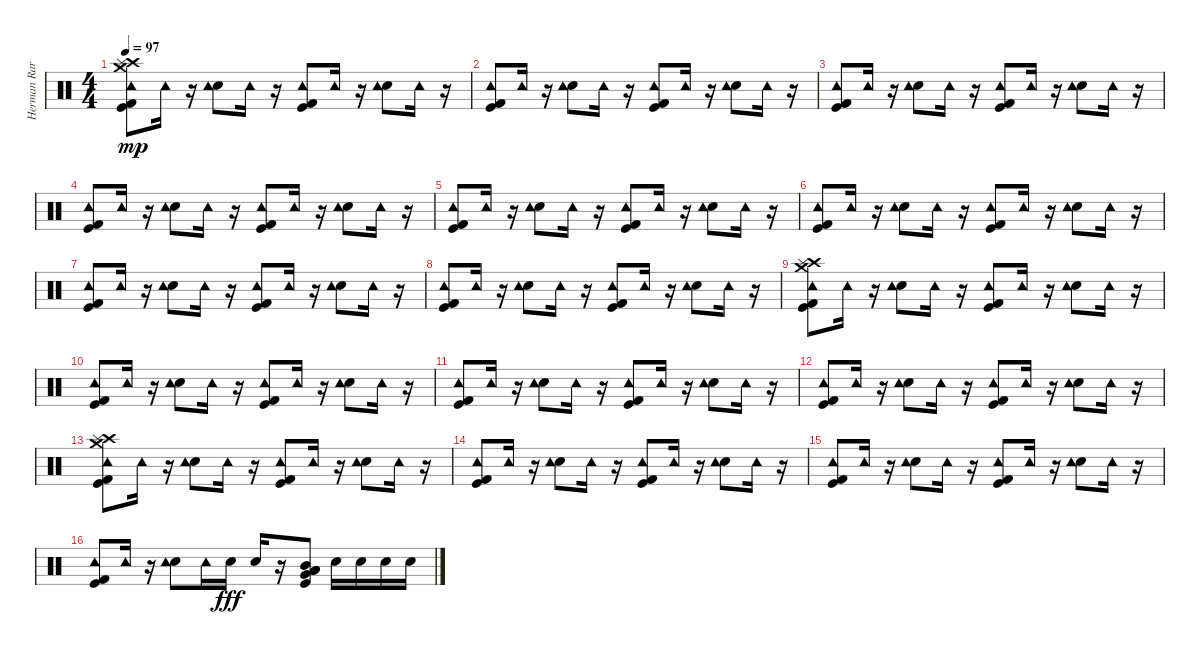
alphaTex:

\track ("Herman Rarebel" "Herman Rar") {instrument percussion}
\staff {score}
\articulation defaults
\ts (4 4)
\tempo 97
\clef neutral
\ks c
("Crash high (hit)" "Splash (hit)" "Crash medium (hit)" "Kick (hit) 2" "Kick (hit)" "Tambourine (hit)").8{dy mp} "Tambourine (hit)".16 r.16 ("Snare (hit) 2" "Tambourine (hit)").8 "Tambourine (hit)".16 r.16 ("Kick (hit) 2" "Kick (hit)" "Tambourine (hit)").8 "Tambourine (hit)".16 r.16 ("Snare (hit) 2" "Tambourine (hit)").8 "Tambourine (hit)".16 r.16 |
("Kick (hit)" "Kick (hit) 2" "Tambourine (hit)").8 "Tambourine (hit)".16 r.16 ("Snare (hit) 2" "Tambourine (hit)").8 "Tambourine (hit)".16 r.16 ("Kick (hit) 2" "Kick (hit)" "Tambourine (hit)").8 "Tambourine (hit)".16 r.16 ("Snare (hit) 2" "Tambourine (hit)").8 "Tambourine (hit)".16 r.16 |
("Kick (hit)" "Kick (hit) 2" "Tambourine (hit)").8 "Tambourine (hit)".16 r.16 ("Snare (hit) 2" "Tambourine (hit)").8 "Tambourine (hit)".16 r.16 ("Kick (hit) 2" "Kick (hit)" "Tambourine (hit)").8 "Tambourine (hit)".16 r.16 ("Snare (hit) 2" "Tambourine (hit)").8 "Tambourine (hit)".16 r.16 |
("Kick (hit)" "Kick (hit) 2" "Tambourine (hit)").8 "Tambourine (hit)".16 r.16 ("Snare (hit) 2" "Tambourine (hit)").8 "Tambourine (hit)".16 r.16 ("Kick (hit) 2" "Kick (hit)" "Tambourine (hit)").8 "Tambourine (hit)".16 r.16 ("Snare (hit) 2" "Tambourine (hit)").8 "Tambourine (hit)".16 r.16 |
("Kick (hit)" "Kick (hit) 2" "Tambourine (hit)").8 "Tambourine (hit)".16 r.16 ("Snare (hit) 2" "Tambourine (hit)").8 "Tambourine (hit)".16 r.16 ("Kick (hit) 2" "Kick (hit)" "Tambourine (hit)").8 "Tambourine (hit)".16 r.16 ("Snare (hit) 2" "Tambourine (hit)").8 "Tambourine (hit)".16 r.16 |
("Kick (hit)" "Kick (hit) 2" "Tambourine (hit)").8 "Tambourine (hit)".16 r.16 ("Snare (hit) 2" "Tambourine (hit)").8 "Tambourine (hit)".16 r.16 ("Kick (hit) 2" "Kick (hit)" "Tambourine (hit)").8 "Tambourine (hit)".16 r.16 ("Snare (hit) 2" "Tambourine (hit)").8 "Tambourine (hit)".16 r.16 |
("Kick (hit)" "Kick (hit) 2" "Tambourine (hit)").8 "Tambourine (hit)".16 r.16 ("Snare (hit) 2" "Tambourine (hit)").8 "Tambourine (hit)".16 r.16 ("Kick (hit) 2" "Kick (hit)" "Tambourine (hit)").8 "Tambourine (hit)".16 r.16 ("Snare (hit) 2" "Tambourine (hit)").8 "Tambourine (hit)".16 r.16 |
("Kick (hit)" "Kick (hit) 2" "Tambourine (hit)").8 "Tambourine (hit)".16 r.16 ("Snare (hit) 2" "Tambourine (hit)").8 "Tambourine (hit)".16 r.16 ("Kick (hit) 2" "Kick (hit)" "Tambourine (hit)").8 "Tambourine (hit)".16 r.16 ("Snare (hit) 2" "Tambourine (hit)").8 "Tambourine (hit)".16 r.16 |
("Crash high (hit)" "Splash (hit)" "Crash medium (hit)" "Kick (hit) 2" "Kick (hit)" "Tambourine (hit)").8 "Tambourine (hit)".16 r.16 ("Snare (hit) 2" "Tambourine (hit)").8 "Tambourine (hit)".16 r.16 ("Kick (hit) 2" "Kick (hit)" "Tambourine (hit)").8 "Tambourine (hit)".16 r.16 ("Snare (hit) 2" "Tambourine (hit)").8 "Tambourine (hit)".16 r.16 |
("Kick (hit)" "Kick (hit) 2" "Tambourine (hit)").8 "Tambourine (hit)".16 r.16 ("Snare (hit) 2" "Tambourine (hit)").8 "Tambourine (hit)".16 r.16 ("Kick (hit) 2" "Kick (hit)" "Tambourine (hit)").8 "Tambourine (hit)".16 r.16 ("Snare (hit) 2" "Tambourine (hit)").8 "Tambourine (hit)".16 r.16 |
("Kick (hit)" "Kick (hit) 2" "Tambourine (hit)").8 "Tambourine (hit)".16 r.16 ("Snare (hit) 2" "Tambourine (hit)").8 "Tambourine (hit)".16 r.16 ("Kick (hit) 2" "Kick (hit)" "Tambourine (hit)").8 "Tambourine (hit)".16 r.16 ("Snare (hit) 2" "Tambourine (hit)").8 "Tambourine (hit)".16 r.16 |
("Kick (hit)" "Kick (hit) 2" "Tambourine (hit)").8 "Tambourine (hit)".16 r.16 ("Snare (hit) 2" "Tambourine (hit)").8 "Tambourine (hit)".16 r.16 ("Kick (hit) 2" "Kick (hit)" "Tambourine (hit)").8 "Tambourine (hit)".16 r.16 ("Snare (hit) 2" "Tambourine (hit)").8 "Tambourine (hit)".16 r.16 |
("Crash high (hit)" "Splash (hit)" "Crash medium (hit)" "Kick (hit) 2" "Kick (hit)" "Tambourine (hit)").8 "Tambourine (hit)".16 r.16 ("Snare (hit) 2" "Tambourine (hit)").8 "Tambourine (hit)".16 r.16 ("Kick (hit) 2" "Kick (hit)" "Tambourine (hit)").8 "Tambourine (hit)".16 r.16 ("Snare (hit) 2" "Tambourine (hit)").8 "Tambourine (hit)".16 r.16 |
("Kick (hit)" "Kick (hit) 2" "Tambourine (hit)").8 "Tambourine (hit)".16 r.16 ("Snare (hit) 2" "Tambourine (hit)").8 "Tambourine (hit)".16 r.16 ("Kick (hit) 2" "Kick (hit)" "Tambourine (hit)").8 "Tambourine (hit)".16 r.16 ("Snare (hit) 2" "Tambourine (hit)").8 "Tambourine (hit)".16 r.16 |
("Kick (hit)" "Kick (hit) 2" "Tambourine (hit)").8 "Tambourine (hit)".16 r.16 ("Snare (hit) 2" "Tambourine (hit)").8 "Tambourine (hit)".16 r.16 ("Kick (hit) 2" "Kick (hit)" "Tambourine (hit)").8 "Tambourine (hit)".16 r.16 ("Snare (hit) 2" "Tambourine (hit)").8 "Tambourine (hit)".16 r.16 |
("Kick (hit) 2" "Kick (hit)" "Tambourine (hit)").8 "Tambourine (hit)".16 r.16 ("Snare (hit) 2" "Tambourine (hit)").8 "Tambourine (hit)".16 "Snare (hit) 2".16{dy fff} "Snare (hit) 2".16 r.16 ("Mid Tom (hit)" "Low Tom (hit)" "Very Low Tom (hit)" "Low Floor Tom (hit)" "Kick (hit)").8 "Snare (hit) 2".16 "Snare (hit) 2".16 "Snare (hit) 2".16 "Snare (hit) 2".16
